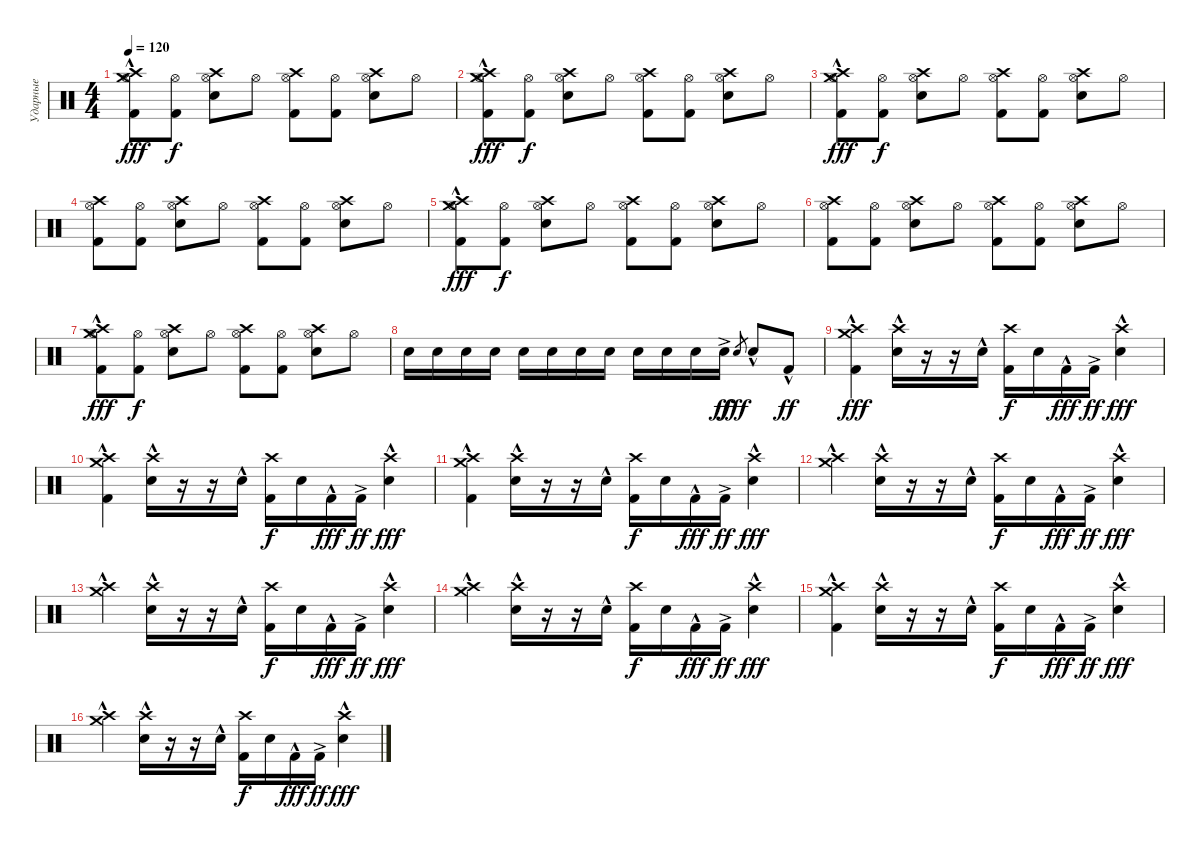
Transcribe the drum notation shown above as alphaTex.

\track ("Ударные" "Ударные") {instrument percussion}
\staff {score}
\articulation defaults
\ts (4 4)
\tempo 120
\clef neutral
\ks c
("Crash high (hit)"{hac} "Hi-Hat (open)"{hac} "Crash medium (hit)"{hac} "Kick (hit) 2").8{dy fff} ("Hi-Hat (open)" "Kick (hit) 2").8{dy f} ("Crash high (hit)" "Hi-Hat (open)" "Electric Snare (hit)").8 "Hi-Hat (open)".8 ("Crash high (hit)" "Hi-Hat (open)" "Kick (hit) 2").8 ("Hi-Hat (open)" "Kick (hit) 2").8 ("Crash high (hit)" "Hi-Hat (open)" "Electric Snare (hit)").8 "Hi-Hat (open)".8 |
("Crash high (hit)"{hac} "Hi-Hat (open)"{hac} "Crash medium (hit)"{hac} "Kick (hit) 2").8{dy fff} ("Hi-Hat (open)" "Kick (hit) 2").8{dy f} ("Crash high (hit)" "Hi-Hat (open)" "Electric Snare (hit)").8 "Hi-Hat (open)".8 ("Crash high (hit)" "Hi-Hat (open)" "Kick (hit) 2").8 ("Hi-Hat (open)" "Kick (hit) 2").8 ("Crash high (hit)" "Hi-Hat (open)" "Electric Snare (hit)").8 "Hi-Hat (open)".8 |
("Crash high (hit)"{hac} "Hi-Hat (open)"{hac} "Crash medium (hit)"{hac} "Kick (hit) 2").8{dy fff} ("Hi-Hat (open)" "Kick (hit) 2").8{dy f} ("Crash high (hit)" "Hi-Hat (open)" "Electric Snare (hit)").8 "Hi-Hat (open)".8 ("Crash high (hit)" "Hi-Hat (open)" "Kick (hit) 2").8 ("Hi-Hat (open)" "Kick (hit) 2").8 ("Crash high (hit)" "Hi-Hat (open)" "Electric Snare (hit)").8 "Hi-Hat (open)".8 |
("Crash high (hit)" "Hi-Hat (open)" "Kick (hit) 2").8 ("Hi-Hat (open)" "Kick (hit) 2").8 ("Crash high (hit)" "Hi-Hat (open)" "Electric Snare (hit)").8 "Hi-Hat (open)".8 ("Crash high (hit)" "Hi-Hat (open)" "Kick (hit) 2").8 ("Hi-Hat (open)" "Kick (hit) 2").8 ("Crash high (hit)" "Hi-Hat (open)" "Electric Snare (hit)").8 "Hi-Hat (open)".8 |
("Crash high (hit)"{hac} "Hi-Hat (open)"{hac} "Crash medium (hit)"{hac} "Kick (hit) 2").8{dy fff} ("Hi-Hat (open)" "Kick (hit) 2").8{dy f} ("Crash high (hit)" "Hi-Hat (open)" "Electric Snare (hit)").8 "Hi-Hat (open)".8 ("Crash high (hit)" "Hi-Hat (open)" "Kick (hit) 2").8 ("Hi-Hat (open)" "Kick (hit) 2").8 ("Crash high (hit)" "Hi-Hat (open)" "Electric Snare (hit)").8 "Hi-Hat (open)".8 |
("Crash high (hit)" "Hi-Hat (open)" "Kick (hit) 2").8 ("Hi-Hat (open)" "Kick (hit) 2").8 ("Crash high (hit)" "Hi-Hat (open)" "Electric Snare (hit)").8 "Hi-Hat (open)".8 ("Crash high (hit)" "Hi-Hat (open)" "Kick (hit) 2").8 ("Hi-Hat (open)" "Kick (hit) 2").8 ("Crash high (hit)" "Hi-Hat (open)" "Electric Snare (hit)").8 "Hi-Hat (open)".8 |
("Crash high (hit)"{hac} "Hi-Hat (open)"{hac} "Crash medium (hit)"{hac} "Kick (hit) 2").8{dy fff} ("Hi-Hat (open)" "Kick (hit) 2").8{dy f} ("Crash high (hit)" "Hi-Hat (open)" "Electric Snare (hit)").8 "Hi-Hat (open)".8 ("Crash high (hit)" "Hi-Hat (open)" "Kick (hit) 2").8 ("Hi-Hat (open)" "Kick (hit) 2").8 ("Crash high (hit)" "Hi-Hat (open)" "Electric Snare (hit)").8 "Hi-Hat (open)".8 |
"Electric Snare (hit)".16 "Electric Snare (hit)".16 "Electric Snare (hit)".16 "Electric Snare (hit)".16 "Electric Snare (hit)".16 "Electric Snare (hit)".16 "Electric Snare (hit)".16 "Electric Snare (hit)".16 "Electric Snare (hit)".16 "Electric Snare (hit)".16 "Electric Snare (hit)".16 "Electric Snare (hit)"{ac}.16{dy ff} "Electric Snare (hit)".8{gr dy fff} "Electric Snare (hit)"{hac}.8 "Kick (hit) 2"{hac}.8{dy ff} |
("Crash high (hit)"{hac} "Crash medium (hit)"{hac} "Kick (hit) 2").4{dy fff} ("Crash high (hit)" "Electric Snare (hit)"{hac}).16 r.16 r.16 "Electric Snare (hit)"{hac}.16 ("Crash high (hit)" "Kick (hit) 2").16{dy f} "Electric Snare (hit)".16 "Kick (hit) 2"{hac}.16{dy fff} "Kick (hit) 2"{ac}.16{dy ff} ("Crash high (hit)" "Electric Snare (hit)"{hac}).4{dy fff} |
("Crash high (hit)"{hac} "Crash medium (hit)"{hac} "Kick (hit) 2").4 ("Crash high (hit)" "Electric Snare (hit)"{hac}).16 r.16 r.16 "Electric Snare (hit)"{hac}.16 ("Crash high (hit)" "Kick (hit) 2").16{dy f} "Electric Snare (hit)".16 "Kick (hit) 2"{hac}.16{dy fff} "Kick (hit) 2"{ac}.16{dy ff} ("Crash high (hit)" "Electric Snare (hit)"{hac}).4{dy fff} |
("Crash high (hit)"{hac} "Crash medium (hit)"{hac} "Kick (hit) 2").4 ("Crash high (hit)" "Electric Snare (hit)"{hac}).16 r.16 r.16 "Electric Snare (hit)"{hac}.16 ("Crash high (hit)" "Kick (hit) 2").16{dy f} "Electric Snare (hit)".16 "Kick (hit) 2"{hac}.16{dy fff} "Kick (hit) 2"{ac}.16{dy ff} ("Crash high (hit)" "Electric Snare (hit)"{hac}).4{dy fff} |
("Crash high (hit)" "Crash medium (hit)"{hac}).4 ("Crash high (hit)" "Electric Snare (hit)"{hac}).16 r.16 r.16 "Electric Snare (hit)"{hac}.16 ("Crash high (hit)" "Kick (hit) 2").16{dy f} "Electric Snare (hit)".16 "Kick (hit) 2"{hac}.16{dy fff} "Kick (hit) 2"{ac}.16{dy ff} ("Crash high (hit)" "Electric Snare (hit)"{hac}).4{dy fff} |
("Crash high (hit)" "Crash medium (hit)"{hac}).4 ("Crash high (hit)" "Electric Snare (hit)"{hac}).16 r.16 r.16 "Electric Snare (hit)"{hac}.16 ("Crash high (hit)" "Kick (hit) 2").16{dy f} "Electric Snare (hit)".16 "Kick (hit) 2"{hac}.16{dy fff} "Kick (hit) 2"{ac}.16{dy ff} ("Crash high (hit)" "Electric Snare (hit)"{hac}).4{dy fff} |
("Crash high (hit)" "Crash medium (hit)"{hac}).4 ("Crash high (hit)" "Electric Snare (hit)"{hac}).16 r.16 r.16 "Electric Snare (hit)"{hac}.16 ("Crash high (hit)" "Kick (hit) 2").16{dy f} "Electric Snare (hit)".16 "Kick (hit) 2"{hac}.16{dy fff} "Kick (hit) 2"{ac}.16{dy ff} ("Crash high (hit)" "Electric Snare (hit)"{hac}).4{dy fff} |
("Crash high (hit)" "Crash medium (hit)"{hac} "Kick (hit) 2").4 ("Crash high (hit)" "Electric Snare (hit)"{hac}).16 r.16 r.16 "Electric Snare (hit)"{hac}.16 ("Crash high (hit)" "Kick (hit) 2").16{dy f} "Electric Snare (hit)".16 "Kick (hit) 2"{hac}.16{dy fff} "Kick (hit) 2"{ac}.16{dy ff} ("Crash high (hit)" "Electric Snare (hit)"{hac}).4{dy fff} |
("Crash high (hit)" "Crash medium (hit)"{hac}).4 ("Crash high (hit)" "Electric Snare (hit)"{hac}).16 r.16 r.16 "Electric Snare (hit)"{hac}.16 ("Crash high (hit)" "Kick (hit) 2").16{dy f} "Electric Snare (hit)".16 "Kick (hit) 2"{hac}.16{dy fff} "Kick (hit) 2"{ac}.16{dy ff} ("Crash high (hit)" "Electric Snare (hit)"{hac}).4{dy fff}
